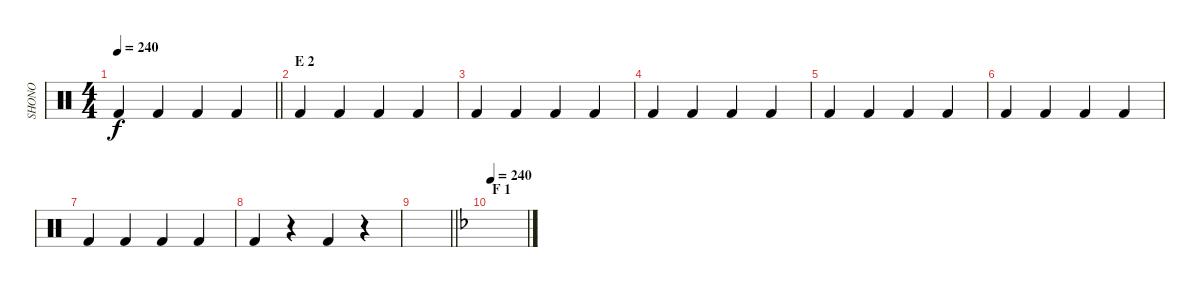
\track ("SHONO" "SHONO") {instrument percussion}
\staff {score}
\articulation defaults
\ts (4 4)
\tempo 240
\clef neutral
\barLineRight lightlight
\ks c "Kick (hit) 2".4{dy f} "Kick (hit) 2".4 "Kick (hit) 2".4 "Kick (hit) 2".4
|
\section ("" "E 2")
"Kick (hit) 2".4 "Kick (hit) 2".4 "Kick (hit) 2".4 "Kick (hit) 2".4 |
"Kick (hit) 2".4 "Kick (hit) 2".4 "Kick (hit) 2".4 "Kick (hit) 2".4 |
"Kick (hit) 2".4 "Kick (hit) 2".4 "Kick (hit) 2".4 "Kick (hit) 2".4 |
"Kick (hit) 2".4 "Kick (hit) 2".4 "Kick (hit) 2".4 "Kick (hit) 2".4 |
"Kick (hit) 2".4 "Kick (hit) 2".4 "Kick (hit) 2".4 "Kick (hit) 2".4 |
"Kick (hit) 2".4 "Kick (hit) 2".4 "Kick (hit) 2".4 "Kick (hit) 2".4 |
"Kick (hit) 2".4 r.4 "Kick (hit) 2".4 r.4 |
\barLineRight lightlight
|
\section ("" "F 1")
\tempo 240
\ks f
